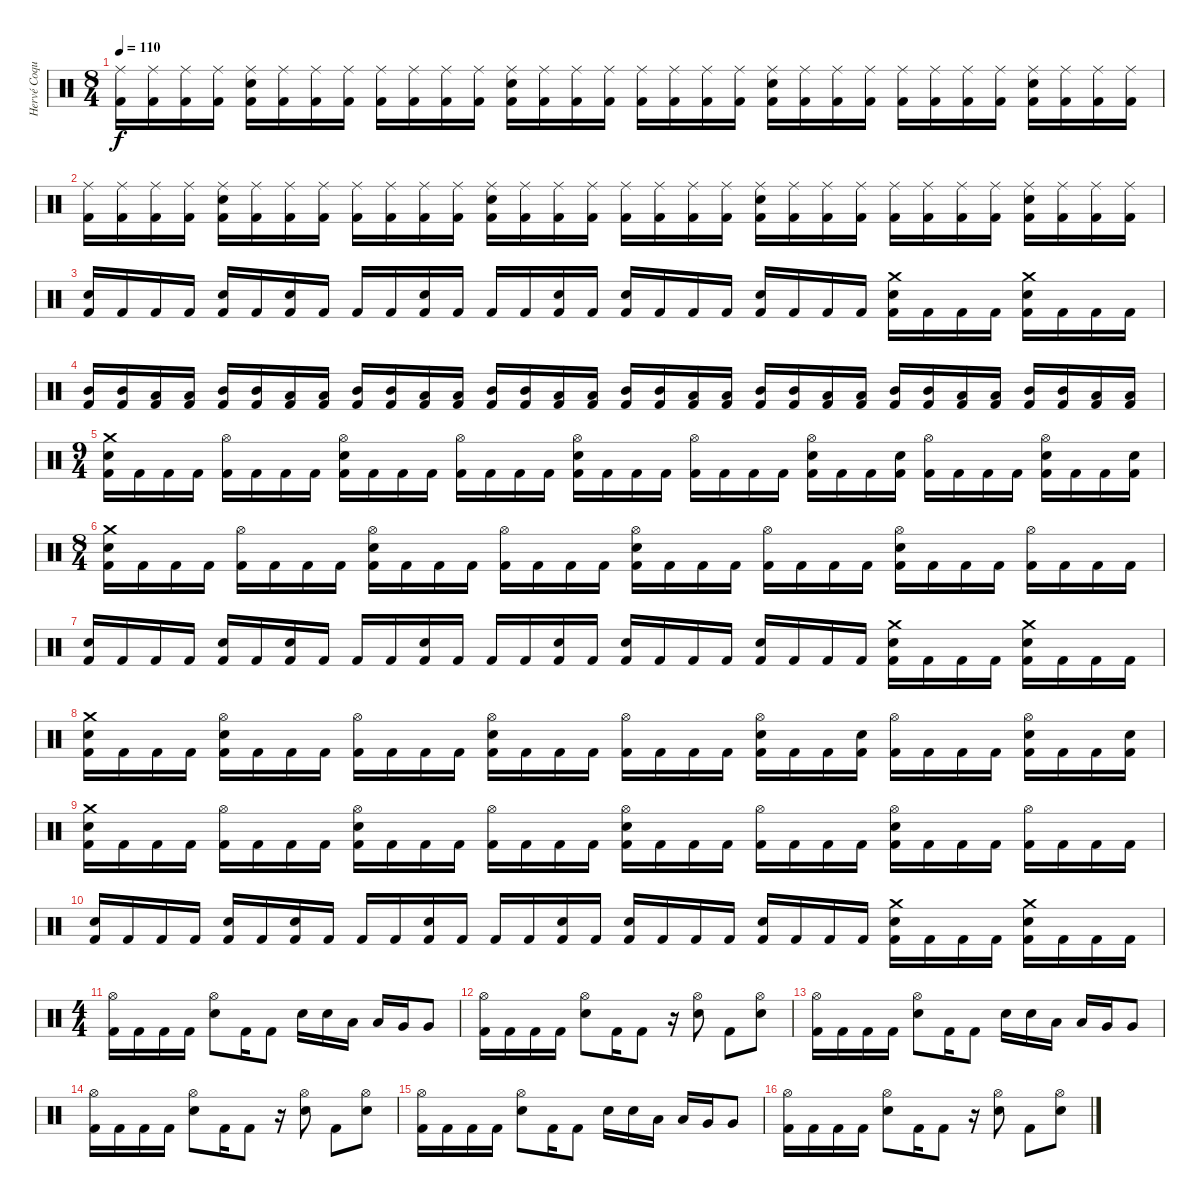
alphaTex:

\track ("Hervé Coquerel" "Hervé Coqu") {instrument percussion}
\staff {score}
\articulation defaults
\ts (8 4)
\tempo 110
\clef neutral
\ks c
("Ride (middle)" "Kick (hit) 2").16{dy f} ("Ride (middle)" "Kick (hit) 2").16 ("Ride (middle)" "Kick (hit) 2").16 ("Ride (middle)" "Kick (hit) 2").16 ("Ride (middle)" "Electric Snare (hit)" "Kick (hit) 2").16 ("Ride (middle)" "Kick (hit) 2").16 ("Ride (middle)" "Kick (hit) 2").16 ("Ride (middle)" "Kick (hit) 2").16 ("Ride (middle)" "Kick (hit) 2").16 ("Ride (middle)" "Kick (hit) 2").16 ("Ride (middle)" "Kick (hit) 2").16 ("Ride (middle)" "Kick (hit) 2").16 ("Ride (middle)" "Electric Snare (hit)" "Kick (hit) 2").16 ("Ride (middle)" "Kick (hit) 2").16 ("Ride (middle)" "Kick (hit) 2").16 ("Ride (middle)" "Kick (hit) 2").16 ("Ride (middle)" "Kick (hit) 2").16 ("Ride (middle)" "Kick (hit) 2").16 ("Ride (middle)" "Kick (hit) 2").16 ("Ride (middle)" "Kick (hit) 2").16 ("Ride (middle)" "Electric Snare (hit)" "Kick (hit) 2").16 ("Ride (middle)" "Kick (hit) 2").16 ("Ride (middle)" "Kick (hit) 2").16 ("Ride (middle)" "Kick (hit) 2").16 ("Ride (middle)" "Kick (hit) 2").16 ("Ride (middle)" "Kick (hit) 2").16 ("Ride (middle)" "Kick (hit) 2").16 ("Ride (middle)" "Kick (hit) 2").16 ("Ride (middle)" "Electric Snare (hit)" "Kick (hit) 2").16 ("Ride (middle)" "Kick (hit) 2").16 ("Ride (middle)" "Kick (hit) 2").16 ("Ride (middle)" "Kick (hit) 2").16 |
("Ride (middle)" "Kick (hit) 2").16 ("Ride (middle)" "Kick (hit) 2").16 ("Ride (middle)" "Kick (hit) 2").16 ("Ride (middle)" "Kick (hit) 2").16 ("Ride (middle)" "Electric Snare (hit)" "Kick (hit) 2").16 ("Ride (middle)" "Kick (hit) 2").16 ("Ride (middle)" "Kick (hit) 2").16 ("Ride (middle)" "Kick (hit) 2").16 ("Ride (middle)" "Kick (hit) 2").16 ("Ride (middle)" "Kick (hit) 2").16 ("Ride (middle)" "Kick (hit) 2").16 ("Ride (middle)" "Kick (hit) 2").16 ("Ride (middle)" "Electric Snare (hit)" "Kick (hit) 2").16 ("Ride (middle)" "Kick (hit) 2").16 ("Ride (middle)" "Kick (hit) 2").16 ("Ride (middle)" "Kick (hit) 2").16 ("Ride (middle)" "Kick (hit) 2").16 ("Ride (middle)" "Kick (hit) 2").16 ("Ride (middle)" "Kick (hit) 2").16 ("Ride (middle)" "Kick (hit) 2").16 ("Ride (middle)" "Electric Snare (hit)" "Kick (hit) 2").16 ("Ride (middle)" "Kick (hit) 2").16 ("Ride (middle)" "Kick (hit) 2").16 ("Ride (middle)" "Kick (hit) 2").16 ("Ride (middle)" "Kick (hit) 2").16 ("Ride (middle)" "Kick (hit) 2").16 ("Ride (middle)" "Kick (hit) 2").16 ("Ride (middle)" "Kick (hit) 2").16 ("Ride (middle)" "Electric Snare (hit)" "Kick (hit) 2").16 ("Ride (middle)" "Kick (hit) 2").16 ("Ride (middle)" "Kick (hit) 2").16 ("Ride (middle)" "Kick (hit) 2").16 |
("Electric Snare (hit)" "Kick (hit) 2").16 "Kick (hit) 2".16 "Kick (hit) 2".16 "Kick (hit) 2".16 ("Electric Snare (hit)" "Kick (hit) 2").16 "Kick (hit) 2".16 ("Electric Snare (hit)" "Kick (hit) 2").16 "Kick (hit) 2".16 "Kick (hit) 2".16 "Kick (hit) 2".16 ("Electric Snare (hit)" "Kick (hit) 2").16 "Kick (hit) 2".16 "Kick (hit) 2".16 "Kick (hit) 2".16 ("Electric Snare (hit)" "Kick (hit) 2").16 "Kick (hit) 2".16 ("Electric Snare (hit)" "Kick (hit) 2").16 "Kick (hit) 2".16 "Kick (hit) 2".16 "Kick (hit) 2".16 ("Electric Snare (hit)" "Kick (hit) 2").16 "Kick (hit) 2".16 "Kick (hit) 2".16 "Kick (hit) 2".16 ("Crash medium (hit)" "Electric Snare (hit)" "Kick (hit) 2").16 "Kick (hit) 2".16 "Kick (hit) 2".16 "Kick (hit) 2".16 ("Crash medium (hit)" "Electric Snare (hit)" "Kick (hit) 2").16 "Kick (hit) 2".16 "Kick (hit) 2".16 "Kick (hit) 2".16 |
("Mid Tom (hit)" "Kick (hit) 2").16 ("Mid Tom (hit)" "Kick (hit) 2").16 ("Low Tom (hit)" "Kick (hit) 2").16 ("Low Tom (hit)" "Kick (hit) 2").16 ("Mid Tom (hit)" "Kick (hit) 2").16 ("Mid Tom (hit)" "Kick (hit) 2").16 ("Low Tom (hit)" "Kick (hit) 2").16 ("Low Tom (hit)" "Kick (hit) 2").16 ("Mid Tom (hit)" "Kick (hit) 2").16 ("Mid Tom (hit)" "Kick (hit) 2").16 ("Low Tom (hit)" "Kick (hit) 2").16 ("Low Tom (hit)" "Kick (hit) 2").16 ("Mid Tom (hit)" "Kick (hit) 2").16 ("Mid Tom (hit)" "Kick (hit) 2").16 ("Low Tom (hit)" "Kick (hit) 2").16 ("Low Tom (hit)" "Kick (hit) 2").16 ("Mid Tom (hit)" "Kick (hit) 2").16 ("Mid Tom (hit)" "Kick (hit) 2").16 ("Low Tom (hit)" "Kick (hit) 2").16 ("Low Tom (hit)" "Kick (hit) 2").16 ("Mid Tom (hit)" "Kick (hit) 2").16 ("Mid Tom (hit)" "Kick (hit) 2").16 ("Low Tom (hit)" "Kick (hit) 2").16 ("Low Tom (hit)" "Kick (hit) 2").16 ("Mid Tom (hit)" "Kick (hit) 2").16 ("Mid Tom (hit)" "Kick (hit) 2").16 ("Low Tom (hit)" "Kick (hit) 2").16 ("Low Tom (hit)" "Kick (hit) 2").16 ("Mid Tom (hit)" "Kick (hit) 2").16 ("Mid Tom (hit)" "Kick (hit) 2").16 ("Low Tom (hit)" "Kick (hit) 2").16 ("Low Tom (hit)" "Kick (hit) 2").16 |
\ts (9 4)
("Crash medium (hit)" "Electric Snare (hit)" "Kick (hit) 2").16 "Kick (hit) 2".16 "Kick (hit) 2".16 "Kick (hit) 2".16 ("Hi-Hat (open)" "Kick (hit) 2").16 "Kick (hit) 2".16 "Kick (hit) 2".16 "Kick (hit) 2".16 ("Hi-Hat (open)" "Electric Snare (hit)" "Kick (hit) 2").16 "Kick (hit) 2".16 "Kick (hit) 2".16 "Kick (hit) 2".16 ("Hi-Hat (open)" "Kick (hit) 2").16 "Kick (hit) 2".16 "Kick (hit) 2".16 "Kick (hit) 2".16 ("Hi-Hat (open)" "Electric Snare (hit)" "Kick (hit) 2").16 "Kick (hit) 2".16 "Kick (hit) 2".16 "Kick (hit) 2".16 ("Hi-Hat (open)" "Kick (hit) 2").16 "Kick (hit) 2".16 "Kick (hit) 2".16 "Kick (hit) 2".16 ("Hi-Hat (open)" "Electric Snare (hit)" "Kick (hit) 2").16 "Kick (hit) 2".16 "Kick (hit) 2".16 ("Electric Snare (hit)" "Kick (hit) 2").16 ("Hi-Hat (open)" "Kick (hit) 2").16 "Kick (hit) 2".16 "Kick (hit) 2".16 "Kick (hit) 2".16 ("Hi-Hat (open)" "Electric Snare (hit)" "Kick (hit) 2").16 "Kick (hit) 2".16 "Kick (hit) 2".16 ("Electric Snare (hit)" "Kick (hit) 2").16 |
\ts (8 4)
("Crash medium (hit)" "Electric Snare (hit)" "Kick (hit) 2").16 "Kick (hit) 2".16 "Kick (hit) 2".16 "Kick (hit) 2".16 ("Hi-Hat (open)" "Kick (hit) 2").16 "Kick (hit) 2".16 "Kick (hit) 2".16 "Kick (hit) 2".16 ("Hi-Hat (open)" "Electric Snare (hit)" "Kick (hit) 2").16 "Kick (hit) 2".16 "Kick (hit) 2".16 "Kick (hit) 2".16 ("Hi-Hat (open)" "Kick (hit) 2").16 "Kick (hit) 2".16 "Kick (hit) 2".16 "Kick (hit) 2".16 ("Hi-Hat (open)" "Electric Snare (hit)" "Kick (hit) 2").16 "Kick (hit) 2".16 "Kick (hit) 2".16 "Kick (hit) 2".16 ("Hi-Hat (open)" "Kick (hit) 2").16 "Kick (hit) 2".16 "Kick (hit) 2".16 "Kick (hit) 2".16 ("Hi-Hat (open)" "Electric Snare (hit)" "Kick (hit) 2").16 "Kick (hit) 2".16 "Kick (hit) 2".16 "Kick (hit) 2".16 ("Hi-Hat (open)" "Kick (hit) 2").16 "Kick (hit) 2".16 "Kick (hit) 2".16 "Kick (hit) 2".16 |
("Electric Snare (hit)" "Kick (hit) 2").16 "Kick (hit) 2".16 "Kick (hit) 2".16 "Kick (hit) 2".16 ("Electric Snare (hit)" "Kick (hit) 2").16 "Kick (hit) 2".16 ("Electric Snare (hit)" "Kick (hit) 2").16 "Kick (hit) 2".16 "Kick (hit) 2".16 "Kick (hit) 2".16 ("Electric Snare (hit)" "Kick (hit) 2").16 "Kick (hit) 2".16 "Kick (hit) 2".16 "Kick (hit) 2".16 ("Electric Snare (hit)" "Kick (hit) 2").16 "Kick (hit) 2".16 ("Electric Snare (hit)" "Kick (hit) 2").16 "Kick (hit) 2".16 "Kick (hit) 2".16 "Kick (hit) 2".16 ("Electric Snare (hit)" "Kick (hit) 2").16 "Kick (hit) 2".16 "Kick (hit) 2".16 "Kick (hit) 2".16 ("Crash medium (hit)" "Electric Snare (hit)" "Kick (hit) 2").16 "Kick (hit) 2".16 "Kick (hit) 2".16 "Kick (hit) 2".16 ("Crash medium (hit)" "Electric Snare (hit)" "Kick (hit) 2").16 "Kick (hit) 2".16 "Kick (hit) 2".16 "Kick (hit) 2".16 |
("Crash medium (hit)" "Electric Snare (hit)" "Kick (hit) 2").16 "Kick (hit) 2".16 "Kick (hit) 2".16 "Kick (hit) 2".16 ("Hi-Hat (open)" "Electric Snare (hit)" "Kick (hit) 2").16 "Kick (hit) 2".16 "Kick (hit) 2".16 "Kick (hit) 2".16 ("Hi-Hat (open)" "Kick (hit) 2").16 "Kick (hit) 2".16 "Kick (hit) 2".16 "Kick (hit) 2".16 ("Hi-Hat (open)" "Electric Snare (hit)" "Kick (hit) 2").16 "Kick (hit) 2".16 "Kick (hit) 2".16 "Kick (hit) 2".16 ("Hi-Hat (open)" "Kick (hit) 2").16 "Kick (hit) 2".16 "Kick (hit) 2".16 "Kick (hit) 2".16 ("Hi-Hat (open)" "Electric Snare (hit)" "Kick (hit) 2").16 "Kick (hit) 2".16 "Kick (hit) 2".16 ("Electric Snare (hit)" "Kick (hit) 2").16 ("Hi-Hat (open)" "Kick (hit) 2").16 "Kick (hit) 2".16 "Kick (hit) 2".16 "Kick (hit) 2".16 ("Hi-Hat (open)" "Electric Snare (hit)" "Kick (hit) 2").16 "Kick (hit) 2".16 "Kick (hit) 2".16 ("Electric Snare (hit)" "Kick (hit) 2").16 |
("Crash medium (hit)" "Electric Snare (hit)" "Kick (hit) 2").16 "Kick (hit) 2".16 "Kick (hit) 2".16 "Kick (hit) 2".16 ("Hi-Hat (open)" "Kick (hit) 2").16 "Kick (hit) 2".16 "Kick (hit) 2".16 "Kick (hit) 2".16 ("Hi-Hat (open)" "Electric Snare (hit)" "Kick (hit) 2").16 "Kick (hit) 2".16 "Kick (hit) 2".16 "Kick (hit) 2".16 ("Hi-Hat (open)" "Kick (hit) 2").16 "Kick (hit) 2".16 "Kick (hit) 2".16 "Kick (hit) 2".16 ("Hi-Hat (open)" "Electric Snare (hit)" "Kick (hit) 2").16 "Kick (hit) 2".16 "Kick (hit) 2".16 "Kick (hit) 2".16 ("Hi-Hat (open)" "Kick (hit) 2").16 "Kick (hit) 2".16 "Kick (hit) 2".16 "Kick (hit) 2".16 ("Hi-Hat (open)" "Electric Snare (hit)" "Kick (hit) 2").16 "Kick (hit) 2".16 "Kick (hit) 2".16 "Kick (hit) 2".16 ("Hi-Hat (open)" "Kick (hit) 2").16 "Kick (hit) 2".16 "Kick (hit) 2".16 "Kick (hit) 2".16 |
("Electric Snare (hit)" "Kick (hit) 2").16 "Kick (hit) 2".16 "Kick (hit) 2".16 "Kick (hit) 2".16 ("Electric Snare (hit)" "Kick (hit) 2").16 "Kick (hit) 2".16 ("Electric Snare (hit)" "Kick (hit) 2").16 "Kick (hit) 2".16 "Kick (hit) 2".16 "Kick (hit) 2".16 ("Electric Snare (hit)" "Kick (hit) 2").16 "Kick (hit) 2".16 "Kick (hit) 2".16 "Kick (hit) 2".16 ("Electric Snare (hit)" "Kick (hit) 2").16 "Kick (hit) 2".16 ("Electric Snare (hit)" "Kick (hit) 2").16 "Kick (hit) 2".16 "Kick (hit) 2".16 "Kick (hit) 2".16 ("Electric Snare (hit)" "Kick (hit) 2").16 "Kick (hit) 2".16 "Kick (hit) 2".16 "Kick (hit) 2".16 ("Crash medium (hit)" "Electric Snare (hit)" "Kick (hit) 2").16 "Kick (hit) 2".16 "Kick (hit) 2".16 "Kick (hit) 2".16 ("Crash medium (hit)" "Electric Snare (hit)" "Kick (hit) 2").16 "Kick (hit) 2".16 "Kick (hit) 2".16 "Kick (hit) 2".16 |
\ts (4 4)
("Hi-Hat (open)" "Kick (hit) 2").16 "Kick (hit) 2".16 "Kick (hit) 2".16 "Kick (hit) 2".16 ("Hi-Hat (open)" "Electric Snare (hit)").8 "Kick (hit) 2".16 "Kick (hit) 2".8 "Electric Snare (hit)".16 "Electric Snare (hit)".16 "Low Tom (hit)".16 "Low Tom (hit)".16 "Very Low Tom (hit)".16 "Very Low Tom (hit)".8 |
("Hi-Hat (open)" "Kick (hit) 2").16 "Kick (hit) 2".16 "Kick (hit) 2".16 "Kick (hit) 2".16 ("Hi-Hat (open)" "Electric Snare (hit)").8 "Kick (hit) 2".16 "Kick (hit) 2".8 r.16 ("Hi-Hat (open)" "Electric Snare (hit)").8 "Kick (hit) 2".8 ("Hi-Hat (open)" "Electric Snare (hit)").8 |
("Hi-Hat (open)" "Kick (hit) 2").16 "Kick (hit) 2".16 "Kick (hit) 2".16 "Kick (hit) 2".16 ("Hi-Hat (open)" "Electric Snare (hit)").8 "Kick (hit) 2".16 "Kick (hit) 2".8 "Electric Snare (hit)".16 "Electric Snare (hit)".16 "Low Tom (hit)".16 "Low Tom (hit)".16 "Very Low Tom (hit)".16 "Very Low Tom (hit)".8 |
("Hi-Hat (open)" "Kick (hit) 2").16 "Kick (hit) 2".16 "Kick (hit) 2".16 "Kick (hit) 2".16 ("Hi-Hat (open)" "Electric Snare (hit)").8 "Kick (hit) 2".16 "Kick (hit) 2".8 r.16 ("Hi-Hat (open)" "Electric Snare (hit)").8 "Kick (hit) 2".8 ("Hi-Hat (open)" "Electric Snare (hit)").8 |
("Hi-Hat (open)" "Kick (hit) 2").16 "Kick (hit) 2".16 "Kick (hit) 2".16 "Kick (hit) 2".16 ("Hi-Hat (open)" "Electric Snare (hit)").8 "Kick (hit) 2".16 "Kick (hit) 2".8 "Electric Snare (hit)".16 "Electric Snare (hit)".16 "Low Tom (hit)".16 "Low Tom (hit)".16 "Very Low Tom (hit)".16 "Very Low Tom (hit)".8 |
("Hi-Hat (open)" "Kick (hit) 2").16 "Kick (hit) 2".16 "Kick (hit) 2".16 "Kick (hit) 2".16 ("Hi-Hat (open)" "Electric Snare (hit)").8 "Kick (hit) 2".16 "Kick (hit) 2".8 r.16 ("Hi-Hat (open)" "Electric Snare (hit)").8 "Kick (hit) 2".8 ("Hi-Hat (open)" "Electric Snare (hit)").8
